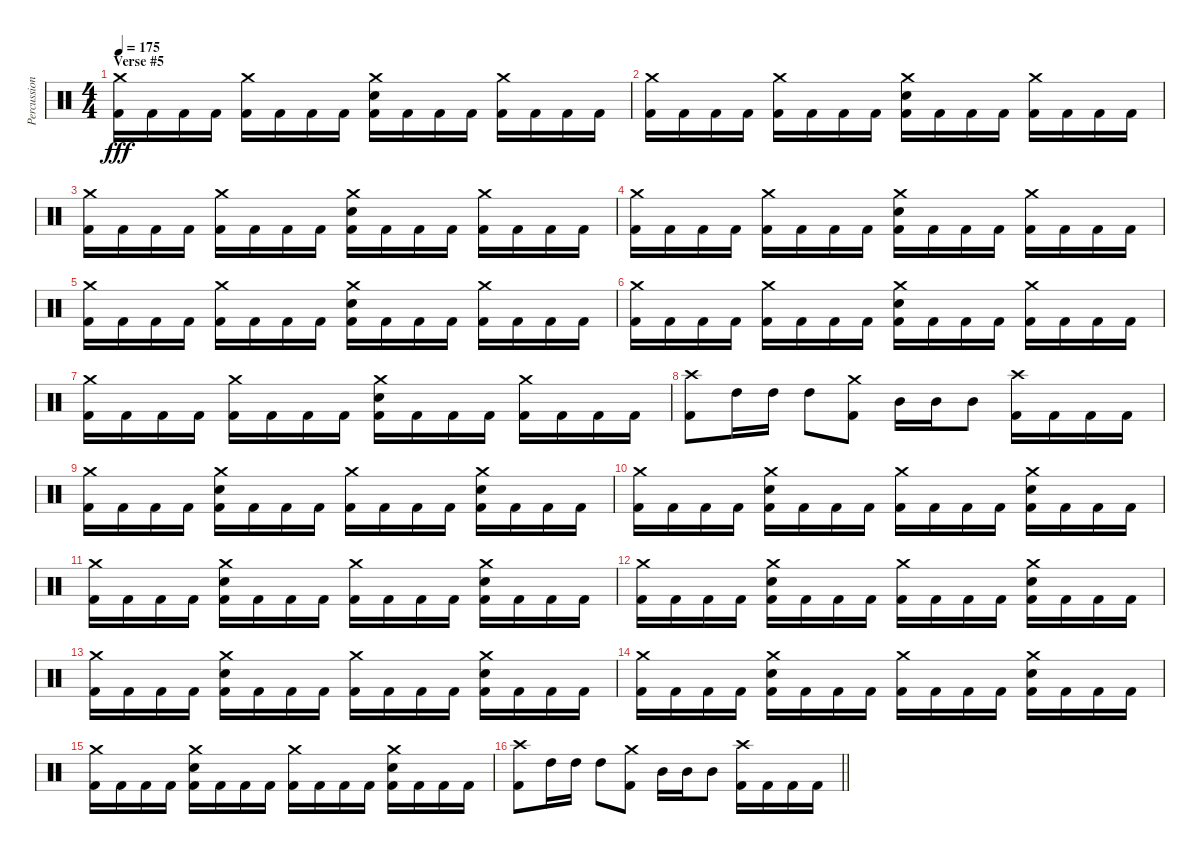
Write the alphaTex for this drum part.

\track ("Percussions" "Percussion") {instrument percussion}
\staff {score}
\articulation defaults
\ts (4 4)
\section ("" "Verse #5")
\tempo 175
\clef neutral
\ks c
("Crash medium (hit)" "Kick (hit) 2").16{dy fff} "Kick (hit) 2".16 "Kick (hit) 2".16 "Kick (hit) 2".16 ("Crash medium (hit)" "Kick (hit) 2").16 "Kick (hit) 2".16 "Kick (hit) 2".16 "Kick (hit) 2".16 ("Crash medium (hit)" "Snare (hit) 2" "Kick (hit) 2").16 "Kick (hit) 2".16 "Kick (hit) 2".16 "Kick (hit) 2".16 ("Crash medium (hit)" "Kick (hit) 2").16 "Kick (hit) 2".16 "Kick (hit) 2".16 "Kick (hit) 2".16 |
("Crash medium (hit)" "Kick (hit) 2").16 "Kick (hit) 2".16 "Kick (hit) 2".16 "Kick (hit) 2".16 ("Crash medium (hit)" "Kick (hit) 2").16 "Kick (hit) 2".16 "Kick (hit) 2".16 "Kick (hit) 2".16 ("Crash medium (hit)" "Snare (hit) 2" "Kick (hit) 2").16 "Kick (hit) 2".16 "Kick (hit) 2".16 "Kick (hit) 2".16 ("Crash medium (hit)" "Kick (hit) 2").16 "Kick (hit) 2".16 "Kick (hit) 2".16 "Kick (hit) 2".16 |
("Crash medium (hit)" "Kick (hit) 2").16 "Kick (hit) 2".16 "Kick (hit) 2".16 "Kick (hit) 2".16 ("Crash medium (hit)" "Kick (hit) 2").16 "Kick (hit) 2".16 "Kick (hit) 2".16 "Kick (hit) 2".16 ("Crash medium (hit)" "Snare (hit) 2" "Kick (hit) 2").16 "Kick (hit) 2".16 "Kick (hit) 2".16 "Kick (hit) 2".16 ("Crash medium (hit)" "Kick (hit) 2").16 "Kick (hit) 2".16 "Kick (hit) 2".16 "Kick (hit) 2".16 |
("Crash medium (hit)" "Kick (hit) 2").16 "Kick (hit) 2".16 "Kick (hit) 2".16 "Kick (hit) 2".16 ("Crash medium (hit)" "Kick (hit) 2").16 "Kick (hit) 2".16 "Kick (hit) 2".16 "Kick (hit) 2".16 ("Crash medium (hit)" "Snare (hit) 2" "Kick (hit) 2").16 "Kick (hit) 2".16 "Kick (hit) 2".16 "Kick (hit) 2".16 ("Crash medium (hit)" "Kick (hit) 2").16 "Kick (hit) 2".16 "Kick (hit) 2".16 "Kick (hit) 2".16 |
("Crash medium (hit)" "Kick (hit) 2").16 "Kick (hit) 2".16 "Kick (hit) 2".16 "Kick (hit) 2".16 ("Crash medium (hit)" "Kick (hit) 2").16 "Kick (hit) 2".16 "Kick (hit) 2".16 "Kick (hit) 2".16 ("Crash medium (hit)" "Snare (hit) 2" "Kick (hit) 2").16 "Kick (hit) 2".16 "Kick (hit) 2".16 "Kick (hit) 2".16 ("Crash medium (hit)" "Kick (hit) 2").16 "Kick (hit) 2".16 "Kick (hit) 2".16 "Kick (hit) 2".16 |
("Crash medium (hit)" "Kick (hit) 2").16 "Kick (hit) 2".16 "Kick (hit) 2".16 "Kick (hit) 2".16 ("Crash medium (hit)" "Kick (hit) 2").16 "Kick (hit) 2".16 "Kick (hit) 2".16 "Kick (hit) 2".16 ("Crash medium (hit)" "Snare (hit) 2" "Kick (hit) 2").16 "Kick (hit) 2".16 "Kick (hit) 2".16 "Kick (hit) 2".16 ("Crash medium (hit)" "Kick (hit) 2").16 "Kick (hit) 2".16 "Kick (hit) 2".16 "Kick (hit) 2".16 |
("Crash medium (hit)" "Kick (hit) 2").16 "Kick (hit) 2".16 "Kick (hit) 2".16 "Kick (hit) 2".16 ("Crash medium (hit)" "Kick (hit) 2").16 "Kick (hit) 2".16 "Kick (hit) 2".16 "Kick (hit) 2".16 ("Crash medium (hit)" "Snare (hit) 2" "Kick (hit) 2").16 "Kick (hit) 2".16 "Kick (hit) 2".16 "Kick (hit) 2".16 ("Crash medium (hit)" "Kick (hit) 2").16 "Kick (hit) 2".16 "Kick (hit) 2".16 "Kick (hit) 2".16 |
("Crash high (hit)" "Kick (hit) 2").8 "High Tom (hit)".16 "High Tom (hit)".16 "High Tom (hit)".8 ("Crash medium (hit)" "Kick (hit) 2").8 "Mid Tom (hit)".16 "Mid Tom (hit)".16 "Mid Tom (hit)".8 ("Crash high (hit)" "Kick (hit) 2").16 "Kick (hit) 2".16 "Kick (hit) 2".16 "Kick (hit) 2".16 |
("Crash medium (hit)" "Kick (hit) 2").16 "Kick (hit) 2".16 "Kick (hit) 2".16 "Kick (hit) 2".16 ("Crash medium (hit)" "Snare (hit) 2" "Kick (hit) 2").16 "Kick (hit) 2".16 "Kick (hit) 2".16 "Kick (hit) 2".16 ("Crash medium (hit)" "Kick (hit) 2").16 "Kick (hit) 2".16 "Kick (hit) 2".16 "Kick (hit) 2".16 ("Crash medium (hit)" "Snare (hit) 2" "Kick (hit) 2").16 "Kick (hit) 2".16 "Kick (hit) 2".16 "Kick (hit) 2".16 |
("Crash medium (hit)" "Kick (hit) 2").16 "Kick (hit) 2".16 "Kick (hit) 2".16 "Kick (hit) 2".16 ("Crash medium (hit)" "Snare (hit) 2" "Kick (hit) 2").16 "Kick (hit) 2".16 "Kick (hit) 2".16 "Kick (hit) 2".16 ("Crash medium (hit)" "Kick (hit) 2").16 "Kick (hit) 2".16 "Kick (hit) 2".16 "Kick (hit) 2".16 ("Crash medium (hit)" "Snare (hit) 2" "Kick (hit) 2").16 "Kick (hit) 2".16 "Kick (hit) 2".16 "Kick (hit) 2".16 |
("Crash medium (hit)" "Kick (hit) 2").16 "Kick (hit) 2".16 "Kick (hit) 2".16 "Kick (hit) 2".16 ("Crash medium (hit)" "Snare (hit) 2" "Kick (hit) 2").16 "Kick (hit) 2".16 "Kick (hit) 2".16 "Kick (hit) 2".16 ("Crash medium (hit)" "Kick (hit) 2").16 "Kick (hit) 2".16 "Kick (hit) 2".16 "Kick (hit) 2".16 ("Crash medium (hit)" "Snare (hit) 2" "Kick (hit) 2").16 "Kick (hit) 2".16 "Kick (hit) 2".16 "Kick (hit) 2".16 |
("Crash medium (hit)" "Kick (hit) 2").16 "Kick (hit) 2".16 "Kick (hit) 2".16 "Kick (hit) 2".16 ("Crash medium (hit)" "Snare (hit) 2" "Kick (hit) 2").16 "Kick (hit) 2".16 "Kick (hit) 2".16 "Kick (hit) 2".16 ("Crash medium (hit)" "Kick (hit) 2").16 "Kick (hit) 2".16 "Kick (hit) 2".16 "Kick (hit) 2".16 ("Crash medium (hit)" "Snare (hit) 2" "Kick (hit) 2").16 "Kick (hit) 2".16 "Kick (hit) 2".16 "Kick (hit) 2".16 |
("Crash medium (hit)" "Kick (hit) 2").16 "Kick (hit) 2".16 "Kick (hit) 2".16 "Kick (hit) 2".16 ("Crash medium (hit)" "Snare (hit) 2" "Kick (hit) 2").16 "Kick (hit) 2".16 "Kick (hit) 2".16 "Kick (hit) 2".16 ("Crash medium (hit)" "Kick (hit) 2").16 "Kick (hit) 2".16 "Kick (hit) 2".16 "Kick (hit) 2".16 ("Crash medium (hit)" "Snare (hit) 2" "Kick (hit) 2").16 "Kick (hit) 2".16 "Kick (hit) 2".16 "Kick (hit) 2".16 |
("Crash medium (hit)" "Kick (hit) 2").16 "Kick (hit) 2".16 "Kick (hit) 2".16 "Kick (hit) 2".16 ("Crash medium (hit)" "Snare (hit) 2" "Kick (hit) 2").16 "Kick (hit) 2".16 "Kick (hit) 2".16 "Kick (hit) 2".16 ("Crash medium (hit)" "Kick (hit) 2").16 "Kick (hit) 2".16 "Kick (hit) 2".16 "Kick (hit) 2".16 ("Crash medium (hit)" "Snare (hit) 2" "Kick (hit) 2").16 "Kick (hit) 2".16 "Kick (hit) 2".16 "Kick (hit) 2".16 |
("Crash medium (hit)" "Kick (hit) 2").16 "Kick (hit) 2".16 "Kick (hit) 2".16 "Kick (hit) 2".16 ("Crash medium (hit)" "Snare (hit) 2" "Kick (hit) 2").16 "Kick (hit) 2".16 "Kick (hit) 2".16 "Kick (hit) 2".16 ("Crash medium (hit)" "Kick (hit) 2").16 "Kick (hit) 2".16 "Kick (hit) 2".16 "Kick (hit) 2".16 ("Crash medium (hit)" "Snare (hit) 2" "Kick (hit) 2").16 "Kick (hit) 2".16 "Kick (hit) 2".16 "Kick (hit) 2".16 |
\barLineRight lightlight
("Crash high (hit)" "Kick (hit) 2").8 "High Tom (hit)".16 "High Tom (hit)".16 "High Tom (hit)".8 ("Crash medium (hit)" "Kick (hit) 2").8 "Mid Tom (hit)".16 "Mid Tom (hit)".16 "Mid Tom (hit)".8 ("Crash high (hit)" "Kick (hit) 2").16 "Kick (hit) 2".16 "Kick (hit) 2".16 "Kick (hit) 2".16
